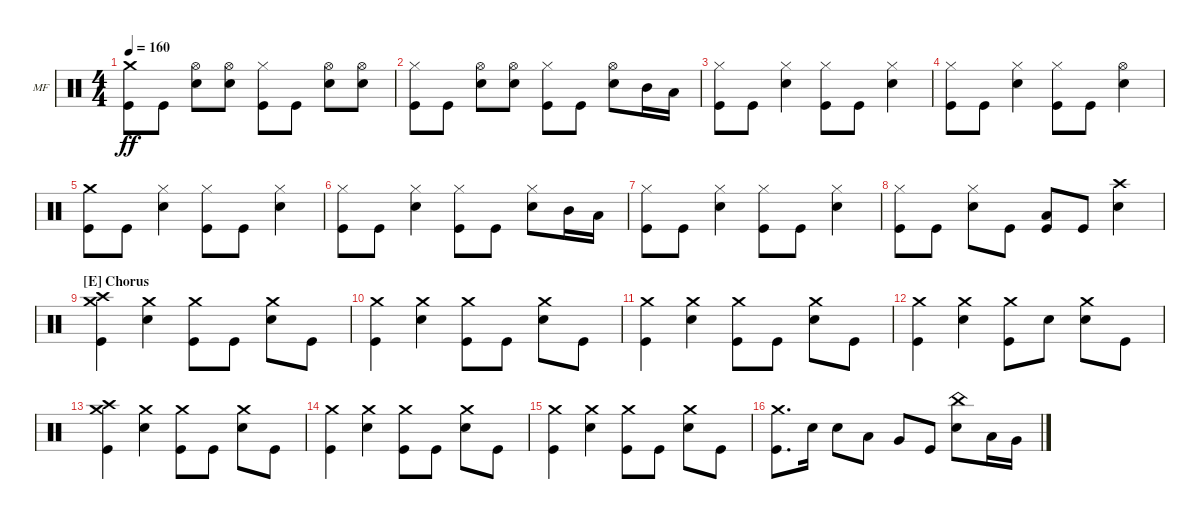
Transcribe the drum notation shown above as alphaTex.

\defaultSystemsLayout 4
\bracketExtendMode groupsimilarinstruments
\firstSystemTrackNameOrientation horizontal
\otherSystemsTrackNameOrientation horizontal
\track ("Mike Felumlee - Drums" "MF") {instrument percussion}
\staff {score}
\articulation defaults
\ts (4 4)
\tempo 160
\clef neutral
\ks c
("Crash medium (hit)" "Kick (hit)").8{dy ff} "Kick (hit)".8 ("Snare (hit) 2" "Hi-Hat (open)").8 ("Snare (hit) 2" "Hi-Hat (open)").8 ("Kick (hit)" "Hi-Hat (closed)").8 "Kick (hit)".8 ("Snare (hit) 2" "Hi-Hat (open)").8 ("Snare (hit) 2" "Hi-Hat (open)").8 |
("Kick (hit)" "Hi-Hat (closed)").8 "Kick (hit)".8 ("Snare (hit) 2" "Hi-Hat (open)").8 ("Snare (hit) 2" "Hi-Hat (open)").8 ("Kick (hit)" "Hi-Hat (closed)").8 "Kick (hit)".8 ("Snare (hit) 2" "Hi-Hat (open)").8 "Mid Tom (hit)".16 "Low Tom (hit)".16 |
("Kick (hit)" "Hi-Hat (closed)").8 "Kick (hit)".8 ("Snare (hit) 2" "Hi-Hat (closed)").4 ("Kick (hit)" "Hi-Hat (closed)").8 "Kick (hit)".8 ("Snare (hit) 2" "Hi-Hat (closed)").4 |
("Kick (hit)" "Hi-Hat (closed)").8 "Kick (hit)".8 ("Snare (hit) 2" "Hi-Hat (closed)").4 ("Kick (hit)" "Hi-Hat (closed)").8 "Kick (hit)".8 ("Snare (hit) 2" "Hi-Hat (open)").4 |
("Crash medium (hit)" "Kick (hit)").8 "Kick (hit)".8 ("Snare (hit) 2" "Hi-Hat (closed)").4 ("Kick (hit)" "Hi-Hat (closed)").8 "Kick (hit)".8 ("Snare (hit) 2" "Hi-Hat (closed)").4 |
("Kick (hit)" "Hi-Hat (closed)").8 "Kick (hit)".8 ("Snare (hit) 2" "Hi-Hat (closed)").4 ("Kick (hit)" "Hi-Hat (closed)").8 "Kick (hit)".8 ("Snare (hit) 2" "Hi-Hat (closed)").8 "Mid Tom (hit)".16 "Low Tom (hit)".16 |
("Kick (hit)" "Hi-Hat (closed)").8 "Kick (hit)".8 ("Snare (hit) 2" "Hi-Hat (closed)").4 ("Kick (hit)" "Hi-Hat (closed)").8 "Kick (hit)".8 ("Snare (hit) 2" "Hi-Hat (closed)").4 |
("Kick (hit)" "Hi-Hat (closed)").8 "Kick (hit)".8 ("Snare (hit) 2" "Hi-Hat (closed)").8 "Kick (hit)".8 ("Kick (hit)" "Low Tom (hit)").8 "Kick (hit)".8 ("Snare (hit) 2" "Crash high (hit)").4 |
\section ("E" "Chorus")
("Crash high (hit)" "Crash medium (hit)" "Kick (hit)").4 ("Snare (hit) 2" "Crash medium (hit)").4 ("Kick (hit)" "Crash medium (hit)").8 "Kick (hit)".8 ("Snare (hit) 2" "Crash medium (hit)").8 "Kick (hit)".8 |
("Kick (hit)" "Crash medium (hit)").4 ("Snare (hit) 2" "Crash medium (hit)").4 ("Kick (hit)" "Crash medium (hit)").8 "Kick (hit)".8 ("Snare (hit) 2" "Crash medium (hit)").8 "Kick (hit)".8 |
("Kick (hit)" "Crash medium (hit)").4 ("Snare (hit) 2" "Crash medium (hit)").4 ("Kick (hit)" "Crash medium (hit)").8 "Kick (hit)".8 ("Snare (hit) 2" "Crash medium (hit)").8 "Kick (hit)".8 |
("Kick (hit)" "Crash medium (hit)").4 ("Snare (hit) 2" "Crash medium (hit)").4 ("Kick (hit)" "Crash medium (hit)").8 "Snare (hit) 2".8 ("Snare (hit) 2" "Crash medium (hit)").8 "Kick (hit)".8 |
("Crash high (hit)" "Crash medium (hit)" "Kick (hit)").4 ("Snare (hit) 2" "Crash medium (hit)").4 ("Kick (hit)" "Crash medium (hit)").8 "Kick (hit)".8 ("Snare (hit) 2" "Crash medium (hit)").8 "Kick (hit)".8 |
("Kick (hit)" "Crash medium (hit)").4 ("Snare (hit) 2" "Crash medium (hit)").4 ("Kick (hit)" "Crash medium (hit)").8 "Kick (hit)".8 ("Snare (hit) 2" "Crash medium (hit)").8 "Kick (hit)".8 |
("Kick (hit)" "Crash medium (hit)").4 ("Snare (hit) 2" "Crash medium (hit)").4 ("Kick (hit)" "Crash medium (hit)").8 "Kick (hit)".8 ("Snare (hit) 2" "Crash medium (hit)").8 "Kick (hit)".8 |
("Kick (hit)" "Crash medium (hit)").8{d} "Snare (hit) 2".16 "Snare (hit) 2".8 "Low Tom (hit)".8 "Very Low Tom (hit)".8 "Kick (hit)".8 ("Snare (hit) 2" "China (hit)").8 "Low Tom (hit)".16 "Very Low Tom (hit)".16
